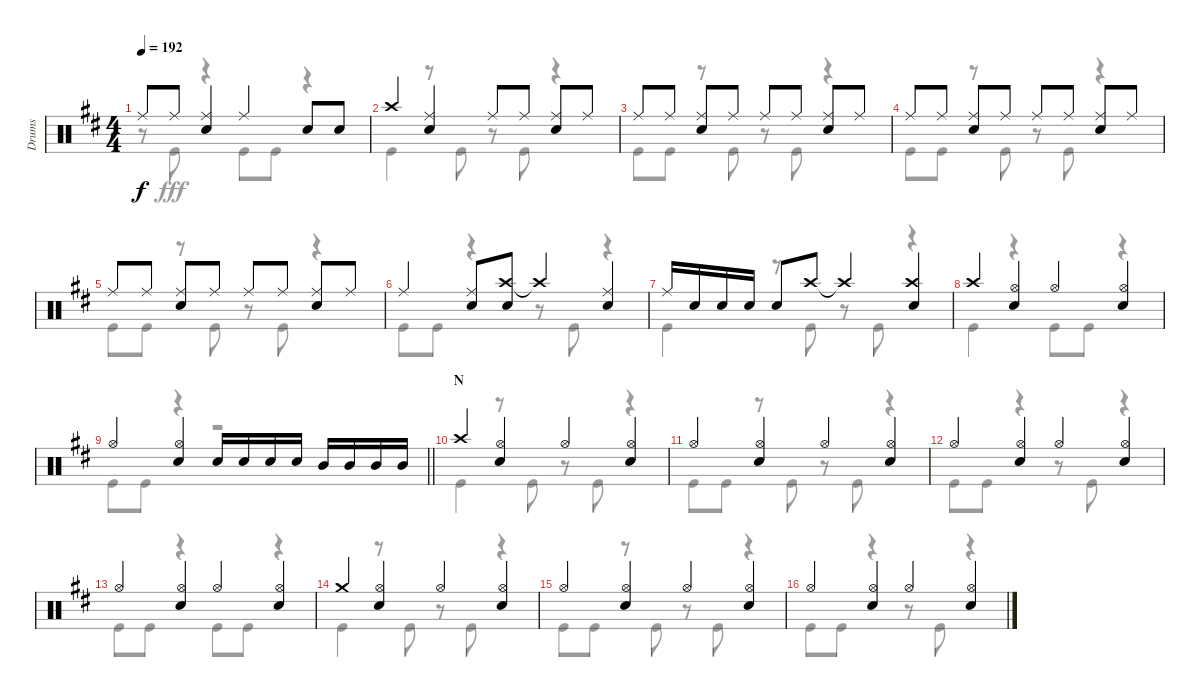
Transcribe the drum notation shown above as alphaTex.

\track ("Drums" "Drums") {instrument percussion}
\staff {score}
\articulation defaults
\voice
\ts (4 4)
\tempo 192
\clef neutral
\ks d "Ride (middle)".8{dy f} "Ride (middle)".8
("Ride (middle)" "Snare (hit) 2").4 "Ride (middle)".4 "Snare (hit) 2".8 "Snare (hit) 2".8 |
"Crash high (hit)".4 ("Ride (middle)" "Snare (hit) 2").4 "Ride (middle)".8 "Ride (middle)".8 ("Ride (middle)" "Snare (hit) 2").8 "Ride (middle)".8 |
"Ride (middle)".8 "Ride (middle)".8 ("Ride (middle)" "Snare (hit) 2").8 "Ride (middle)".8 "Ride (middle)".8 "Ride (middle)".8 ("Ride (middle)" "Snare (hit) 2").8 "Ride (middle)".8 |
"Ride (middle)".8 "Ride (middle)".8 ("Ride (middle)" "Snare (hit) 2").8 "Ride (middle)".8 "Ride (middle)".8 "Ride (middle)".8 ("Ride (middle)" "Snare (hit) 2").8 "Ride (middle)".8 |
"Ride (middle)".8 "Ride (middle)".8 ("Ride (middle)" "Snare (hit) 2").8 "Ride (middle)".8 "Ride (middle)".8 "Ride (middle)".8 ("Ride (middle)" "Snare (hit) 2").8 "Ride (middle)".8 |
"Ride (middle)".4 ("Ride (middle)" "Snare (hit) 2").8 ("Crash high (hit)" "Snare (hit) 2").8 "Crash high (hit)"{t}.4 ("Ride (middle)" "Snare (hit) 2").4 |
"Ride (middle)".16 "Snare (hit) 2".16 "Snare (hit) 2".16 "Snare (hit) 2".16 "Snare (hit) 2".8 "Crash high (hit)".8 "Crash high (hit)"{t}.4 ("Crash high (hit)" "Snare (hit) 2").4 |
"Crash high (hit)".4 ("Hi-Hat (open)" "Snare (hit) 2").4 "Hi-Hat (open)".4 ("Hi-Hat (open)" "Snare (hit) 2").4 |
\barLineRight lightlight "Hi-Hat (open)".4
("Hi-Hat (open)" "Snare (hit) 2").4 "Snare (hit) 2".16 "Snare (hit) 2".16 "Snare (hit) 2".16 "Snare (hit) 2".16 "Mid Tom (hit)".16 "Mid Tom (hit)".16 "Mid Tom (hit)".16 "Mid Tom (hit)".16 |
\section ("" "N")
"Crash high (hit)".4 ("Hi-Hat (open)" "Snare (hit) 2").4 "Hi-Hat (open)".4 ("Hi-Hat (open)" "Snare (hit) 2").4 |
"Hi-Hat (open)".4 ("Hi-Hat (open)" "Snare (hit) 2").4 "Hi-Hat (open)".4 ("Hi-Hat (open)" "Snare (hit) 2").4 |
"Hi-Hat (open)".4 ("Hi-Hat (open)" "Snare (hit) 2").4 "Hi-Hat (open)".4 ("Hi-Hat (open)" "Snare (hit) 2").4 |
"Hi-Hat (open)".4 ("Hi-Hat (open)" "Snare (hit) 2").4 "Hi-Hat (open)".4 ("Hi-Hat (open)" "Snare (hit) 2").4 |
"Crash medium (hit)".4 ("Hi-Hat (open)" "Snare (hit) 2").4 "Hi-Hat (open)".4 ("Hi-Hat (open)" "Snare (hit) 2").4 |
"Hi-Hat (open)".4 ("Hi-Hat (open)" "Snare (hit) 2").4 "Hi-Hat (open)".4 ("Hi-Hat (open)" "Snare (hit) 2").4 |
"Hi-Hat (open)".4 ("Hi-Hat (open)" "Snare (hit) 2").4 "Hi-Hat (open)".4 ("Hi-Hat (open)" "Snare (hit) 2").4
\voice
\clef neutral
\ottava regular
\simile none
\ks d
r.8{dy fff} "Kick (hit)".8 r.4 "Kick (hit)".8 "Kick (hit)".8 r.4 |
"Kick (hit)".4 r.8 "Kick (hit)".8 r.8 "Kick (hit)".8 r.4 |
"Kick (hit)".8 "Kick (hit)".8 r.8 "Kick (hit)".8 r.8 "Kick (hit)".8 r.4 |
"Kick (hit)".8 "Kick (hit)".8 r.8 "Kick (hit)".8 r.8 "Kick (hit)".8 r.4 |
"Kick (hit)".8 "Kick (hit)".8 r.8 "Kick (hit)".8 r.8 "Kick (hit)".8 r.4 |
"Kick (hit)".8 "Kick (hit)".8 r.4 r.8 "Kick (hit)".8 r.4 |
"Kick (hit)".4 r.8 "Kick (hit)".8 r.8 "Kick (hit)".8 r.4 |
"Kick (hit)".4 r.4 "Kick (hit)".8 "Kick (hit)".8 r.4 |
\barLineRight lightlight "Kick (hit)".8 "Kick (hit)".8
r.4 r.2 |
"Kick (hit)".4 r.8 "Kick (hit)".8 r.8 "Kick (hit)".8 r.4 |
"Kick (hit)".8 "Kick (hit)".8 r.8 "Kick (hit)".8 r.8 "Kick (hit)".8 r.4 |
"Kick (hit)".8 "Kick (hit)".8 r.4 r.8 "Kick (hit)".8 r.4 |
"Kick (hit)".8 "Kick (hit)".8 r.4 "Kick (hit)".8 "Kick (hit)".8 r.4 |
"Kick (hit)".4 r.8 "Kick (hit)".8 r.8 "Kick (hit)".8 r.4 |
"Kick (hit)".8 "Kick (hit)".8 r.8 "Kick (hit)".8 r.8 "Kick (hit)".8 r.4 |
"Kick (hit)".8 "Kick (hit)".8 r.4 r.8 "Kick (hit)".8 r.4
